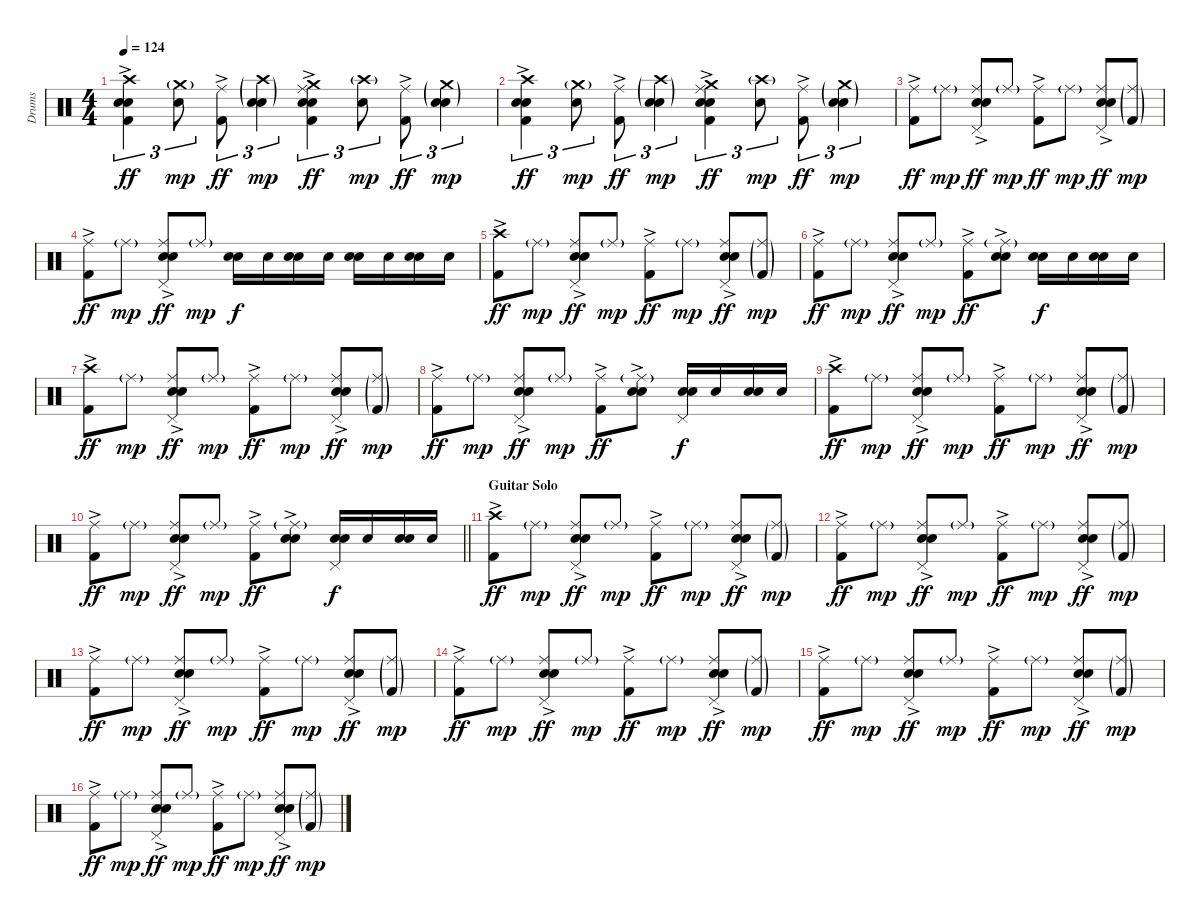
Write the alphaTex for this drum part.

\track ("Drums" "Drums") {instrument percussion}
\staff {score}
\articulation defaults
\ts (4 4)
\tempo 124
\clef neutral
\ks c
("Crash high (hit)" "Electric Snare (hit)"{ac} "Snare (hit) 2" "Kick (hit) 2"{ac}).4{tu (3 2) dy ff} ("Crash medium (hit)"{g} "Snare (hit) 2").8{tu (3 2) dy mp} ("Ride (middle)" "Kick (hit) 2"{ac}).8{tu (3 2) dy ff} ("Crash high (hit)"{g} "Electric Snare (hit)"{g} "Snare (hit) 2").4{tu (3 2) dy mp} ("Ride (middle)" "Crash medium (hit)" "Electric Snare (hit)"{ac} "Snare (hit) 2" "Kick (hit) 2"{ac}).4{tu (3 2) dy ff} ("Crash high (hit)"{g} "Snare (hit) 2").8{tu (3 2) dy mp} ("Ride (middle)" "Kick (hit) 2"{ac}).8{tu (3 2) dy ff} ("Crash medium (hit)"{g} "Electric Snare (hit)"{g} "Snare (hit) 2").4{tu (3 2) dy mp} |
("Crash high (hit)" "Electric Snare (hit)"{ac} "Snare (hit) 2" "Kick (hit) 2"{ac}).4{tu (3 2) dy ff} ("Crash medium (hit)"{g} "Snare (hit) 2").8{tu (3 2) dy mp} ("Ride (middle)" "Kick (hit) 2"{ac}).8{tu (3 2) dy ff} ("Crash high (hit)"{g} "Electric Snare (hit)"{g} "Snare (hit) 2").4{tu (3 2) dy mp} ("Ride (middle)" "Crash medium (hit)" "Electric Snare (hit)"{ac} "Snare (hit) 2" "Kick (hit) 2"{ac}).4{tu (3 2) dy ff} ("Crash high (hit)"{g} "Snare (hit) 2").8{tu (3 2) dy mp} ("Ride (middle)" "Kick (hit) 2"{ac}).8{tu (3 2) dy ff} ("Crash medium (hit)"{g} "Electric Snare (hit)"{g} "Snare (hit) 2").4{tu (3 2) dy mp} |
("Ride (middle)" "Kick (hit) 2"{ac}).8{dy ff} "Ride (middle)"{g}.8{dy mp} ("Ride (middle)" "Electric Snare (hit)"{ac} "Snare (hit) 2" "Pedal Hi-Hat (hit)").8{dy ff} "Ride (middle)"{g}.8{dy mp} ("Ride (middle)" "Kick (hit) 2"{ac}).8{dy ff} "Ride (middle)"{g}.8{dy mp} ("Ride (middle)" "Electric Snare (hit)"{ac} "Snare (hit) 2" "Pedal Hi-Hat (hit)").8{dy ff} ("Ride (middle)"{g} "Kick (hit) 2"{g}).8{dy mp} |
("Ride (middle)" "Kick (hit) 2"{ac}).8{dy ff} "Ride (middle)"{g}.8{dy mp} ("Ride (middle)" "Electric Snare (hit)"{ac} "Snare (hit) 2" "Pedal Hi-Hat (hit)").8{dy ff} "Ride (middle)"{g}.8{dy mp} ("Electric Snare (hit)" "Snare (hit) 2").16{dy f} "Snare (hit) 2".16 ("Electric Snare (hit)" "Snare (hit) 2").16 "Snare (hit) 2".16 ("Electric Snare (hit)" "Snare (hit) 2").16 "Snare (hit) 2".16 ("Electric Snare (hit)" "Snare (hit) 2").16 "Snare (hit) 2".16 |
("Crash high (hit)" "Kick (hit) 2"{ac}).8{dy ff} "Ride (middle)"{g}.8{dy mp} ("Ride (middle)" "Electric Snare (hit)"{ac} "Snare (hit) 2" "Pedal Hi-Hat (hit)").8{dy ff} "Ride (middle)"{g}.8{dy mp} ("Ride (middle)" "Kick (hit) 2"{ac}).8{dy ff} "Ride (middle)"{g}.8{dy mp} ("Ride (middle)" "Electric Snare (hit)"{ac} "Snare (hit) 2" "Pedal Hi-Hat (hit)").8{dy ff} ("Ride (middle)"{g} "Kick (hit) 2"{g}).8{dy mp} |
("Ride (middle)" "Kick (hit) 2"{ac}).8{dy ff} "Ride (middle)"{g}.8{dy mp} ("Ride (middle)" "Electric Snare (hit)"{ac} "Snare (hit) 2" "Pedal Hi-Hat (hit)").8{dy ff} "Ride (middle)"{g}.8{dy mp} ("Ride (middle)" "Kick (hit) 2"{ac}).8{dy ff} ("Ride (middle)"{g} "Electric Snare (hit)"{ac} "Snare (hit) 2").8 ("Electric Snare (hit)" "Snare (hit) 2").16{dy f} "Snare (hit) 2".16 ("Electric Snare (hit)" "Snare (hit) 2").16 "Snare (hit) 2".16 |
("Crash high (hit)" "Kick (hit) 2"{ac}).8{dy ff} "Ride (middle)"{g}.8{dy mp} ("Ride (middle)" "Electric Snare (hit)"{ac} "Snare (hit) 2" "Pedal Hi-Hat (hit)").8{dy ff} "Ride (middle)"{g}.8{dy mp} ("Ride (middle)" "Kick (hit) 2"{ac}).8{dy ff} "Ride (middle)"{g}.8{dy mp} ("Ride (middle)" "Electric Snare (hit)"{ac} "Snare (hit) 2" "Pedal Hi-Hat (hit)").8{dy ff} ("Ride (middle)"{g} "Kick (hit) 2"{g}).8{dy mp} |
("Ride (middle)" "Kick (hit) 2"{ac}).8{dy ff} "Ride (middle)"{g}.8{dy mp} ("Ride (middle)" "Electric Snare (hit)"{ac} "Snare (hit) 2" "Pedal Hi-Hat (hit)").8{dy ff} "Ride (middle)"{g}.8{dy mp} ("Ride (middle)" "Kick (hit) 2"{ac}).8{dy ff} ("Ride (middle)"{g} "Electric Snare (hit)"{ac} "Snare (hit) 2").8 ("Electric Snare (hit)" "Snare (hit) 2" "Pedal Hi-Hat (hit)").16{dy f} "Snare (hit) 2".16 ("Electric Snare (hit)" "Snare (hit) 2").16 "Snare (hit) 2".16 |
("Crash high (hit)" "Kick (hit) 2"{ac}).8{dy ff} "Ride (middle)"{g}.8{dy mp} ("Ride (middle)" "Electric Snare (hit)"{ac} "Snare (hit) 2" "Pedal Hi-Hat (hit)").8{dy ff} "Ride (middle)"{g}.8{dy mp} ("Ride (middle)" "Kick (hit) 2"{ac}).8{dy ff} "Ride (middle)"{g}.8{dy mp} ("Ride (middle)" "Electric Snare (hit)"{ac} "Snare (hit) 2" "Pedal Hi-Hat (hit)").8{dy ff} ("Ride (middle)"{g} "Kick (hit) 2"{g}).8{dy mp} |
\barLineRight lightlight
("Ride (middle)" "Kick (hit) 2"{ac}).8{dy ff} "Ride (middle)"{g}.8{dy mp} ("Ride (middle)" "Electric Snare (hit)"{ac} "Snare (hit) 2" "Pedal Hi-Hat (hit)").8{dy ff} "Ride (middle)"{g}.8{dy mp} ("Ride (middle)" "Kick (hit) 2"{ac}).8{dy ff} ("Ride (middle)"{g} "Electric Snare (hit)"{ac} "Snare (hit) 2").8 ("Electric Snare (hit)" "Snare (hit) 2" "Pedal Hi-Hat (hit)").16{dy f} "Snare (hit) 2".16 ("Electric Snare (hit)" "Snare (hit) 2").16 "Snare (hit) 2".16 |
\section ("" "Guitar Solo")
("Crash high (hit)" "Kick (hit) 2"{ac}).8{dy ff} "Ride (middle)"{g}.8{dy mp} ("Ride (middle)" "Electric Snare (hit)"{ac} "Snare (hit) 2" "Pedal Hi-Hat (hit)").8{dy ff} "Ride (middle)"{g}.8{dy mp} ("Ride (middle)" "Kick (hit) 2"{ac}).8{dy ff} "Ride (middle)"{g}.8{dy mp} ("Ride (middle)" "Electric Snare (hit)"{ac} "Snare (hit) 2" "Pedal Hi-Hat (hit)").8{dy ff} ("Ride (middle)"{g} "Kick (hit) 2"{g}).8{dy mp} |
("Ride (middle)" "Kick (hit) 2"{ac}).8{dy ff} "Ride (middle)"{g}.8{dy mp} ("Ride (middle)" "Electric Snare (hit)"{ac} "Snare (hit) 2" "Pedal Hi-Hat (hit)").8{dy ff} "Ride (middle)"{g}.8{dy mp} ("Ride (middle)" "Kick (hit) 2"{ac}).8{dy ff} "Ride (middle)"{g}.8{dy mp} ("Ride (middle)" "Electric Snare (hit)"{ac} "Snare (hit) 2" "Pedal Hi-Hat (hit)").8{dy ff} ("Ride (middle)"{g} "Kick (hit) 2"{g}).8{dy mp} |
("Ride (middle)" "Kick (hit) 2"{ac}).8{dy ff} "Ride (middle)"{g}.8{dy mp} ("Ride (middle)" "Electric Snare (hit)"{ac} "Snare (hit) 2" "Pedal Hi-Hat (hit)").8{dy ff} "Ride (middle)"{g}.8{dy mp} ("Ride (middle)" "Kick (hit) 2"{ac}).8{dy ff} "Ride (middle)"{g}.8{dy mp} ("Ride (middle)" "Electric Snare (hit)"{ac} "Snare (hit) 2" "Pedal Hi-Hat (hit)").8{dy ff} ("Ride (middle)"{g} "Kick (hit) 2"{g}).8{dy mp} |
("Ride (middle)" "Kick (hit) 2"{ac}).8{dy ff} "Ride (middle)"{g}.8{dy mp} ("Ride (middle)" "Electric Snare (hit)"{ac} "Snare (hit) 2" "Pedal Hi-Hat (hit)").8{dy ff} "Ride (middle)"{g}.8{dy mp} ("Ride (middle)" "Kick (hit) 2"{ac}).8{dy ff} "Ride (middle)"{g}.8{dy mp} ("Ride (middle)" "Electric Snare (hit)"{ac} "Snare (hit) 2" "Pedal Hi-Hat (hit)").8{dy ff} ("Ride (middle)"{g} "Kick (hit) 2"{g}).8{dy mp} |
("Ride (middle)" "Kick (hit) 2"{ac}).8{dy ff} "Ride (middle)"{g}.8{dy mp} ("Ride (middle)" "Electric Snare (hit)"{ac} "Snare (hit) 2" "Pedal Hi-Hat (hit)").8{dy ff} "Ride (middle)"{g}.8{dy mp} ("Ride (middle)" "Kick (hit) 2"{ac}).8{dy ff} "Ride (middle)"{g}.8{dy mp} ("Ride (middle)" "Electric Snare (hit)"{ac} "Snare (hit) 2" "Pedal Hi-Hat (hit)").8{dy ff} ("Ride (middle)"{g} "Kick (hit) 2"{g}).8{dy mp} |
("Ride (middle)" "Kick (hit) 2"{ac}).8{dy ff} "Ride (middle)"{g}.8{dy mp} ("Ride (middle)" "Electric Snare (hit)"{ac} "Snare (hit) 2" "Pedal Hi-Hat (hit)").8{dy ff} "Ride (middle)"{g}.8{dy mp} ("Ride (middle)" "Kick (hit) 2"{ac}).8{dy ff} "Ride (middle)"{g}.8{dy mp} ("Ride (middle)" "Electric Snare (hit)"{ac} "Snare (hit) 2" "Pedal Hi-Hat (hit)").8{dy ff} ("Ride (middle)"{g} "Kick (hit) 2"{g}).8{dy mp}
